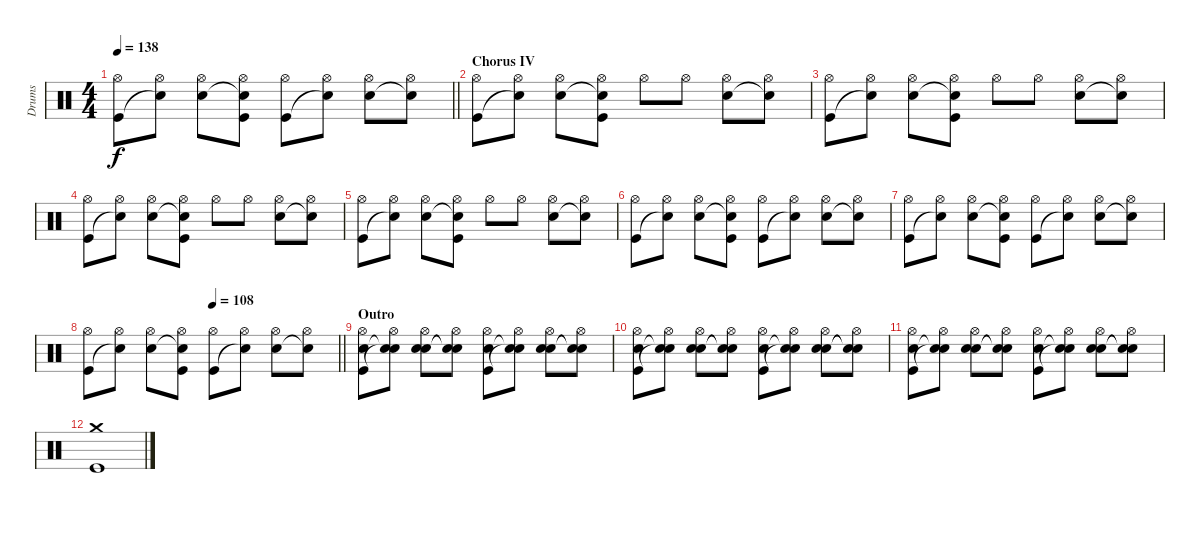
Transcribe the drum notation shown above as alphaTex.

\track ("Drums" "Drums") {instrument percussion}
\staff {score}
\articulation defaults
\ts (4 4)
\tempo 138
\clef neutral
\barLineRight lightlight
\ks c
("Hi-Hat (open)" "Kick (hit)").8{dy f} ("Hi-Hat (open)" "Snare (hit)"{t}).8 ("Hi-Hat (open)" "Snare (hit) 2").8 ("Hi-Hat (open)" "Snare (hit)"{t} "Kick (hit)").8 ("Hi-Hat (open)" "Kick (hit)").8 ("Hi-Hat (open)" "Snare (hit)"{t}).8 ("Hi-Hat (open)" "Snare (hit) 2").8 ("Hi-Hat (open)" "Snare (hit)"{t}).8 |
\section ("" "Chorus IV")
("Hi-Hat (open)" "Kick (hit)").8 ("Hi-Hat (open)" "Snare (hit)"{t}).8 ("Hi-Hat (open)" "Snare (hit) 2").8 ("Hi-Hat (open)" "Snare (hit)"{t} "Kick (hit)").8 "Hi-Hat (open)".8 "Hi-Hat (open)".8 ("Hi-Hat (open)" "Snare (hit) 2").8 ("Hi-Hat (open)" "Snare (hit)"{t}).8 |
("Hi-Hat (open)" "Kick (hit)").8 ("Hi-Hat (open)" "Snare (hit)"{t}).8 ("Hi-Hat (open)" "Snare (hit) 2").8 ("Hi-Hat (open)" "Snare (hit)"{t} "Kick (hit)").8 "Hi-Hat (open)".8 "Hi-Hat (open)".8 ("Hi-Hat (open)" "Snare (hit) 2").8 ("Hi-Hat (open)" "Snare (hit)"{t}).8 |
("Hi-Hat (open)" "Kick (hit)").8 ("Hi-Hat (open)" "Snare (hit)"{t}).8 ("Hi-Hat (open)" "Snare (hit) 2").8 ("Hi-Hat (open)" "Snare (hit)"{t} "Kick (hit)").8 "Hi-Hat (open)".8 "Hi-Hat (open)".8 ("Hi-Hat (open)" "Snare (hit) 2").8 ("Hi-Hat (open)" "Snare (hit)"{t}).8 |
("Hi-Hat (open)" "Kick (hit)").8 ("Hi-Hat (open)" "Snare (hit)"{t}).8 ("Hi-Hat (open)" "Snare (hit) 2").8 ("Hi-Hat (open)" "Snare (hit)"{t} "Kick (hit)").8 "Hi-Hat (open)".8 "Hi-Hat (open)".8 ("Hi-Hat (open)" "Snare (hit) 2").8 ("Hi-Hat (open)" "Snare (hit)"{t}).8 |
("Hi-Hat (open)" "Kick (hit)").8 ("Hi-Hat (open)" "Snare (hit)"{t}).8 ("Hi-Hat (open)" "Snare (hit) 2").8 ("Hi-Hat (open)" "Snare (hit)"{t} "Kick (hit)").8 ("Hi-Hat (open)" "Kick (hit)").8 ("Hi-Hat (open)" "Snare (hit)"{t}).8 ("Hi-Hat (open)" "Snare (hit) 2").8 ("Hi-Hat (open)" "Snare (hit)"{t}).8 |
("Hi-Hat (open)" "Kick (hit)").8 ("Hi-Hat (open)" "Snare (hit)"{t}).8 ("Hi-Hat (open)" "Snare (hit) 2").8 ("Hi-Hat (open)" "Snare (hit)"{t} "Kick (hit)").8 ("Hi-Hat (open)" "Kick (hit)").8 ("Hi-Hat (open)" "Snare (hit)"{t}).8 ("Hi-Hat (open)" "Snare (hit) 2").8 ("Hi-Hat (open)" "Snare (hit)"{t}).8 |
\tempo (108 0.5)
\barLineRight lightlight
("Hi-Hat (open)" "Kick (hit)").8 ("Hi-Hat (open)" "Snare (hit)"{t}).8 ("Hi-Hat (open)" "Snare (hit) 2").8 ("Hi-Hat (open)" "Snare (hit)"{t} "Kick (hit)").8 ("Hi-Hat (open)" "Kick (hit)").8 ("Hi-Hat (open)" "Snare (hit)"{t}).8 ("Hi-Hat (open)" "Snare (hit) 2").8 ("Hi-Hat (open)" "Snare (hit)"{t}).8 |
\section ("" "Outro")
("Hi-Hat (open)" "Hand Clap (hit)" "Kick (hit)").8 ("Hi-Hat (open)" "Snare (hit)"{t} "Snare (hit)"{t}).8 ("Hi-Hat (open)" "Hand Clap (hit)" "Snare (hit) 2").8 ("Hi-Hat (open)" "Snare (hit)"{t} "Snare (hit)"{t}).8 ("Hi-Hat (open)" "Hand Clap (hit)" "Kick (hit)").8 ("Hi-Hat (open)" "Snare (hit)"{t} "Snare (hit)"{t}).8 ("Hi-Hat (open)" "Hand Clap (hit)" "Snare (hit) 2").8 ("Hi-Hat (open)" "Snare (hit)"{t} "Snare (hit)"{t}).8 |
("Hi-Hat (open)" "Hand Clap (hit)" "Kick (hit)").8 ("Hi-Hat (open)" "Snare (hit)"{t} "Snare (hit)"{t}).8 ("Hi-Hat (open)" "Hand Clap (hit)" "Snare (hit) 2").8 ("Hi-Hat (open)" "Snare (hit)"{t} "Snare (hit)"{t}).8 ("Hi-Hat (open)" "Hand Clap (hit)" "Kick (hit)").8 ("Hi-Hat (open)" "Snare (hit)"{t} "Snare (hit)"{t}).8 ("Hi-Hat (open)" "Hand Clap (hit)" "Snare (hit) 2").8 ("Hi-Hat (open)" "Snare (hit)"{t} "Snare (hit)"{t}).8 |
("Hi-Hat (open)" "Hand Clap (hit)" "Kick (hit)").8 ("Hi-Hat (open)" "Snare (hit)"{t} "Snare (hit)"{t}).8 ("Hi-Hat (open)" "Hand Clap (hit)" "Snare (hit) 2").8 ("Hi-Hat (open)" "Snare (hit)"{t} "Snare (hit)"{t}).8 ("Hi-Hat (open)" "Hand Clap (hit)" "Kick (hit)").8 ("Hi-Hat (open)" "Snare (hit)"{t} "Snare (hit)"{t}).8 ("Hi-Hat (open)" "Hand Clap (hit)" "Snare (hit) 2").8 ("Hi-Hat (open)" "Snare (hit)"{t} "Snare (hit)"{t}).8 |
("Crash medium (hit)" "Kick (hit)").1
